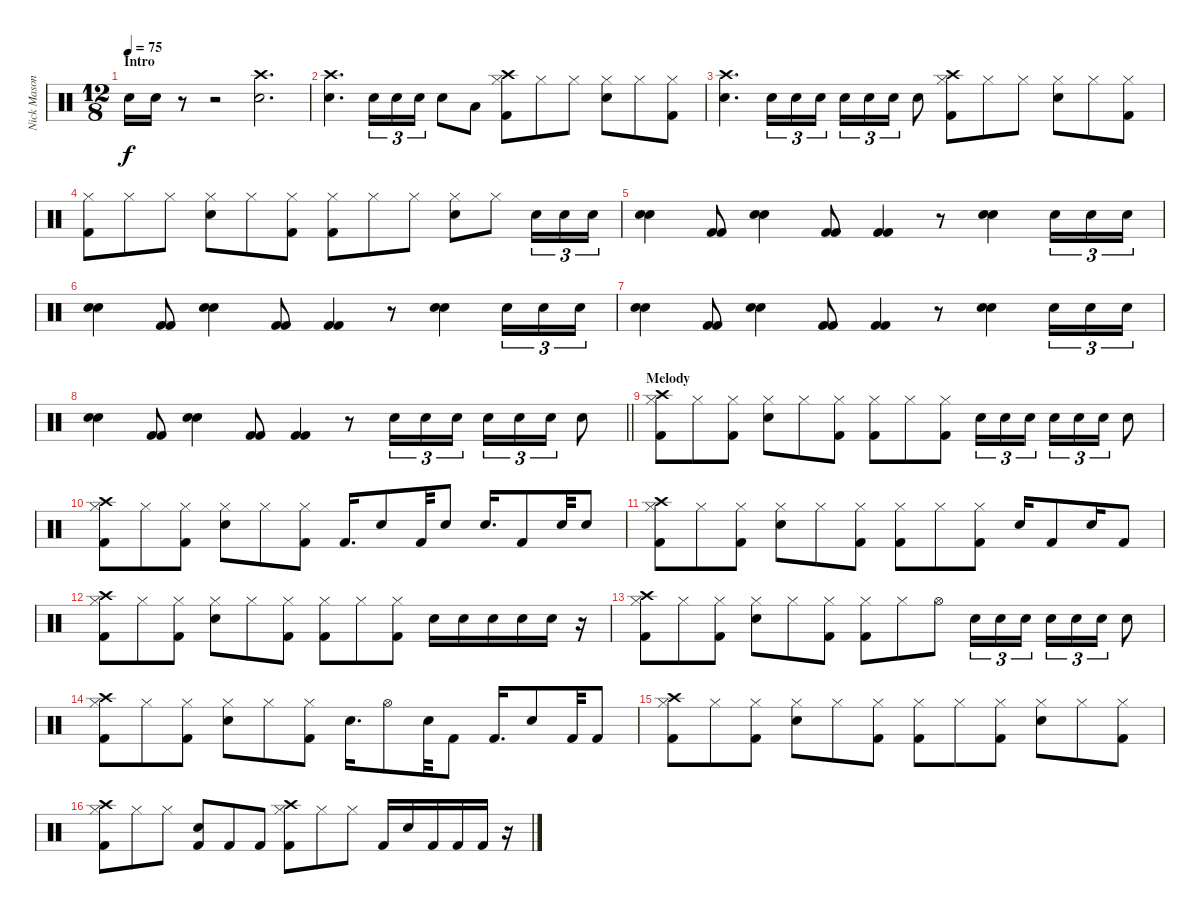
\track ("Nick Mason (Drums)" "Nick Mason") {instrument percussion}
\staff {score}
\articulation defaults
\ts (12 8)
\section ("" "Intro")
\tempo 75
\clef neutral
\ks c "Snare (hit) 2".16{dy f} "Snare (hit) 2".16
r.8 r.2 ("Crash high (hit)" "Snare (hit) 2").2{d} |
("Crash high (hit)" "Snare (hit) 2").4{d} "Snare (hit) 2".16{tu (3 2)} "Snare (hit) 2".16{tu (3 2)} "Snare (hit) 2".16{tu (3 2)} "Snare (hit) 2".8 "Low Tom (hit)".8 ("Crash high (hit)" "Hi-Hat (closed)" "Kick (hit) 2").8 "Hi-Hat (closed)".8 "Hi-Hat (closed)".8 ("Hi-Hat (closed)" "Snare (hit) 2").8 "Hi-Hat (closed)".8 ("Hi-Hat (closed)" "Kick (hit) 2").8 |
("Crash high (hit)" "Snare (hit) 2").4{d} "Snare (hit) 2".16{tu (3 2)} "Snare (hit) 2".16{tu (3 2)} "Snare (hit) 2".16{tu (3 2)} "Snare (hit) 2".16{tu (3 2)} "Snare (hit) 2".16{tu (3 2)} "Snare (hit) 2".16{tu (3 2)} "Snare (hit) 2".8 ("Crash high (hit)" "Hi-Hat (closed)" "Kick (hit) 2").8 "Hi-Hat (closed)".8 "Hi-Hat (closed)".8 ("Hi-Hat (closed)" "Snare (hit) 2").8 "Hi-Hat (closed)".8 ("Hi-Hat (closed)" "Kick (hit) 2").8 |
("Hi-Hat (closed)" "Kick (hit) 2").8 "Hi-Hat (closed)".8 "Hi-Hat (closed)".8 ("Hi-Hat (closed)" "Snare (hit) 2").8 "Hi-Hat (closed)".8 ("Hi-Hat (closed)" "Kick (hit) 2").8 ("Hi-Hat (closed)" "Kick (hit) 2").8 "Hi-Hat (closed)".8 "Hi-Hat (closed)".8 ("Hi-Hat (closed)" "Snare (hit) 2").8 "Hi-Hat (closed)".8 "Snare (hit) 2".16{tu (3 2)} "Snare (hit) 2".16{tu (3 2)} "Snare (hit) 2".16{tu (3 2)} |
("Snare (hit) 2" "Snare (hit) 2").4 ("Kick (hit) 2" "Kick (hit) 2").8 ("Snare (hit) 2" "Snare (hit) 2").4 ("Kick (hit) 2" "Kick (hit) 2").8 ("Kick (hit) 2" "Kick (hit) 2").4 r.8 ("Snare (hit) 2" "Snare (hit) 2").4 "Snare (hit) 2".16{tu (3 2)} "Snare (hit) 2".16{tu (3 2)} "Snare (hit) 2".16{tu (3 2)} |
("Snare (hit) 2" "Snare (hit) 2").4 ("Kick (hit) 2" "Kick (hit) 2").8 ("Snare (hit) 2" "Snare (hit) 2").4 ("Kick (hit) 2" "Kick (hit) 2").8 ("Kick (hit) 2" "Kick (hit) 2").4 r.8 ("Snare (hit) 2" "Snare (hit) 2").4 "Snare (hit) 2".16{tu (3 2)} "Snare (hit) 2".16{tu (3 2)} "Snare (hit) 2".16{tu (3 2)} |
("Snare (hit) 2" "Snare (hit) 2").4 ("Kick (hit) 2" "Kick (hit) 2").8 ("Snare (hit) 2" "Snare (hit) 2").4 ("Kick (hit) 2" "Kick (hit) 2").8 ("Kick (hit) 2" "Kick (hit) 2").4 r.8 ("Snare (hit) 2" "Snare (hit) 2").4 "Snare (hit) 2".16{tu (3 2)} "Snare (hit) 2".16{tu (3 2)} "Snare (hit) 2".16{tu (3 2)} |
\barLineRight lightlight
("Snare (hit) 2" "Snare (hit) 2").4 ("Kick (hit) 2" "Kick (hit) 2").8 ("Snare (hit) 2" "Snare (hit) 2").4 ("Kick (hit) 2" "Kick (hit) 2").8 ("Kick (hit) 2" "Kick (hit) 2").4 r.8 "Snare (hit) 2".16{tu (3 2)} "Snare (hit) 2".16{tu (3 2)} "Snare (hit) 2".16{tu (3 2)} "Snare (hit) 2".16{tu (3 2)} "Snare (hit) 2".16{tu (3 2)} "Snare (hit) 2".16{tu (3 2)} "Snare (hit) 2".8 |
\section ("" "Melody")
("Crash high (hit)" "Hi-Hat (closed)" "Kick (hit) 2").8 "Hi-Hat (closed)".8 ("Hi-Hat (closed)" "Kick (hit) 2").8 ("Hi-Hat (closed)" "Snare (hit) 2").8 "Hi-Hat (closed)".8 ("Hi-Hat (closed)" "Kick (hit) 2").8 ("Hi-Hat (closed)" "Kick (hit) 2").8 "Hi-Hat (closed)".8 ("Hi-Hat (closed)" "Kick (hit) 2").8 "Snare (hit) 2".16{tu (3 2)} "Snare (hit) 2".16{tu (3 2)} "Snare (hit) 2".16{tu (3 2)} "Snare (hit) 2".16{tu (3 2)} "Snare (hit) 2".16{tu (3 2)} "Snare (hit) 2".16{tu (3 2)} "Snare (hit) 2".8 |
("Crash high (hit)" "Hi-Hat (closed)" "Kick (hit) 2").8 "Hi-Hat (closed)".8 ("Hi-Hat (closed)" "Kick (hit) 2").8 ("Hi-Hat (closed)" "Snare (hit) 2").8 "Hi-Hat (closed)".8 ("Hi-Hat (closed)" "Kick (hit) 2").8 "Kick (hit) 2".16{d} "Snare (hit) 2".8 "Kick (hit) 2".32 "Snare (hit) 2".8 "Snare (hit) 2".16{d} "Kick (hit) 2".8 "Snare (hit) 2".32 "Snare (hit) 2".8 |
("Crash high (hit)" "Hi-Hat (closed)" "Kick (hit) 2").8 "Hi-Hat (closed)".8 ("Hi-Hat (closed)" "Kick (hit) 2").8 ("Hi-Hat (closed)" "Snare (hit) 2").8 "Hi-Hat (closed)".8 ("Hi-Hat (closed)" "Kick (hit) 2").8 ("Hi-Hat (closed)" "Kick (hit) 2").8 "Hi-Hat (closed)".8 ("Hi-Hat (closed)" "Kick (hit) 2").8 "Snare (hit) 2".16 "Kick (hit) 2".8 "Snare (hit) 2".16 "Kick (hit) 2".8 |
("Crash high (hit)" "Hi-Hat (closed)" "Kick (hit) 2").8 "Hi-Hat (closed)".8 ("Hi-Hat (closed)" "Kick (hit) 2").8 ("Hi-Hat (closed)" "Snare (hit) 2").8 "Hi-Hat (closed)".8 ("Hi-Hat (closed)" "Kick (hit) 2").8 ("Hi-Hat (closed)" "Kick (hit) 2").8 "Hi-Hat (closed)".8 ("Hi-Hat (closed)" "Kick (hit) 2").8 "Snare (hit) 2".16 "Snare (hit) 2".16 "Snare (hit) 2".16 "Snare (hit) 2".16 "Snare (hit) 2".16 r.16 |
("Crash high (hit)" "Hi-Hat (closed)" "Kick (hit) 2").8 "Hi-Hat (closed)".8 ("Hi-Hat (closed)" "Kick (hit) 2").8 ("Hi-Hat (closed)" "Snare (hit) 2").8 "Hi-Hat (closed)".8 ("Hi-Hat (closed)" "Kick (hit) 2").8 ("Hi-Hat (closed)" "Kick (hit) 2").8 "Hi-Hat (closed)".8 "Hi-Hat (open)".8 "Snare (hit) 2".16{tu (3 2)} "Snare (hit) 2".16{tu (3 2)} "Snare (hit) 2".16{tu (3 2)} "Snare (hit) 2".16{tu (3 2)} "Snare (hit) 2".16{tu (3 2)} "Snare (hit) 2".16{tu (3 2)} "Snare (hit) 2".8 |
("Crash high (hit)" "Hi-Hat (closed)" "Kick (hit) 2").8 "Hi-Hat (closed)".8 ("Hi-Hat (closed)" "Kick (hit) 2").8 ("Hi-Hat (closed)" "Snare (hit) 2").8 "Hi-Hat (closed)".8 ("Hi-Hat (closed)" "Kick (hit) 2").8 "Snare (hit) 2".16{d} "Hi-Hat (open)".8 "Snare (hit) 2".32 "Kick (hit) 2".8 "Kick (hit) 2".16{d} "Snare (hit) 2".8 "Kick (hit) 2".32 "Kick (hit) 2".8 |
("Crash high (hit)" "Hi-Hat (closed)" "Kick (hit) 2").8 "Hi-Hat (closed)".8 ("Hi-Hat (closed)" "Kick (hit) 2").8 ("Hi-Hat (closed)" "Snare (hit) 2").8 "Hi-Hat (closed)".8 ("Hi-Hat (closed)" "Kick (hit) 2").8 ("Hi-Hat (closed)" "Kick (hit) 2").8 "Hi-Hat (closed)".8 ("Hi-Hat (closed)" "Kick (hit) 2").8 ("Hi-Hat (closed)" "Snare (hit) 2").8 "Hi-Hat (closed)".8 ("Hi-Hat (closed)" "Kick (hit) 2").8 |
("Crash high (hit)" "Hi-Hat (closed)" "Kick (hit) 2").8 "Hi-Hat (closed)".8 "Hi-Hat (closed)".8 ("Snare (hit) 2" "Kick (hit) 2").8 "Kick (hit) 2".8 "Kick (hit) 2".8 ("Crash high (hit)" "Hi-Hat (closed)" "Kick (hit) 2").8 "Hi-Hat (closed)".8 "Hi-Hat (closed)".8 "Kick (hit) 2".16 "Snare (hit) 2".16 "Kick (hit) 2".16 "Kick (hit) 2".16 "Kick (hit) 2".16 r.16
